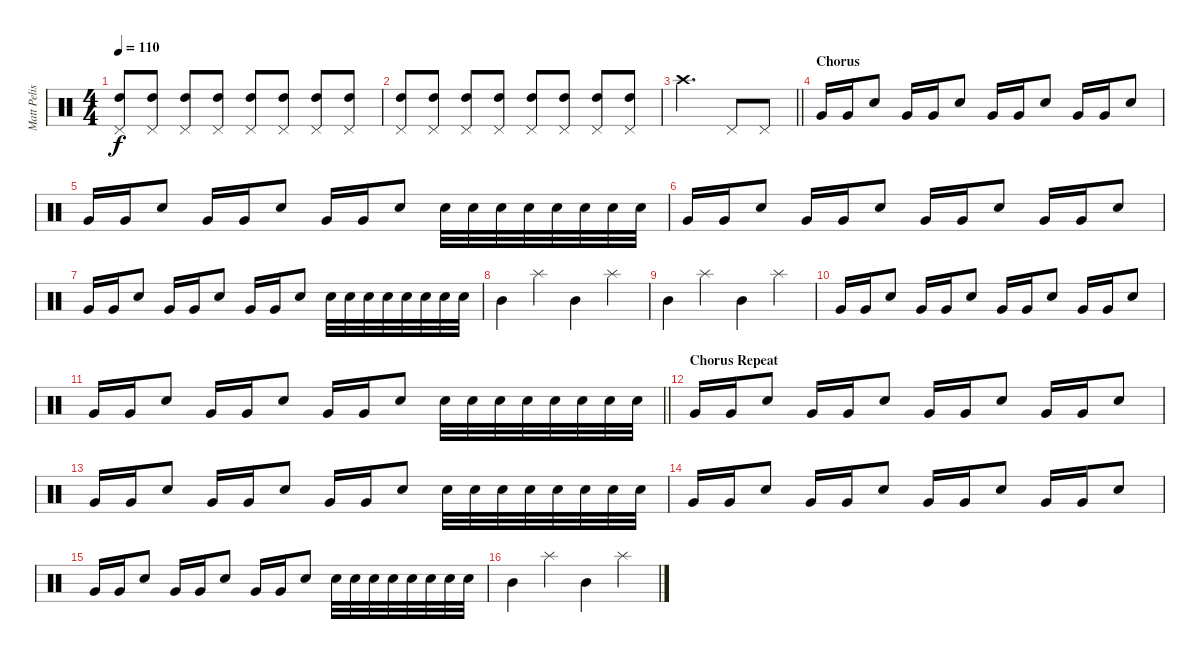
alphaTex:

\track ("Matt Pelissier (Bob Bryar)" "Matt Pelis") {instrument percussion}
\staff {score}
\articulation defaults
\ts (4 4)
\tempo 110
\clef neutral
\ks c
("Pedal Hi-Hat (hit)" "High Tom (hit)").8{dy f} ("Pedal Hi-Hat (hit)" "High Tom (hit)").8 ("Pedal Hi-Hat (hit)" "High Tom (hit)").8 ("Pedal Hi-Hat (hit)" "High Tom (hit)").8 ("Pedal Hi-Hat (hit)" "High Tom (hit)").8 ("Pedal Hi-Hat (hit)" "High Tom (hit)").8 ("Pedal Hi-Hat (hit)" "High Tom (hit)").8 ("Pedal Hi-Hat (hit)" "High Tom (hit)").8 |
("Pedal Hi-Hat (hit)" "High Tom (hit)").8 ("Pedal Hi-Hat (hit)" "High Tom (hit)").8 ("Pedal Hi-Hat (hit)" "High Tom (hit)").8 ("Pedal Hi-Hat (hit)" "High Tom (hit)").8 ("Pedal Hi-Hat (hit)" "High Tom (hit)").8 ("Pedal Hi-Hat (hit)" "High Tom (hit)").8 ("Pedal Hi-Hat (hit)" "High Tom (hit)").8 ("Pedal Hi-Hat (hit)" "High Tom (hit)").8 |
\barLineRight lightlight "Crash high (hit)".2{d} "Pedal Hi-Hat (hit)".8 "Pedal Hi-Hat (hit)".8
|
\section ("" "Chorus")
"Very Low Tom (hit)".16 "Very Low Tom (hit)".16 "Electric Snare (hit)".8 "Very Low Tom (hit)".16 "Very Low Tom (hit)".16 "Electric Snare (hit)".8 "Very Low Tom (hit)".16 "Very Low Tom (hit)".16 "Electric Snare (hit)".8 "Very Low Tom (hit)".16 "Very Low Tom (hit)".16 "Electric Snare (hit)".8 |
"Very Low Tom (hit)".16 "Very Low Tom (hit)".16 "Electric Snare (hit)".8 "Very Low Tom (hit)".16 "Very Low Tom (hit)".16 "Electric Snare (hit)".8 "Very Low Tom (hit)".16 "Very Low Tom (hit)".16 "Electric Snare (hit)".8 "Electric Snare (hit)".32 "Electric Snare (hit)".32 "Electric Snare (hit)".32 "Electric Snare (hit)".32 "Electric Snare (hit)".32 "Electric Snare (hit)".32 "Electric Snare (hit)".32 "Electric Snare (hit)".32 |
"Very Low Tom (hit)".16 "Very Low Tom (hit)".16 "Electric Snare (hit)".8 "Very Low Tom (hit)".16 "Very Low Tom (hit)".16 "Electric Snare (hit)".8 "Very Low Tom (hit)".16 "Very Low Tom (hit)".16 "Electric Snare (hit)".8 "Very Low Tom (hit)".16 "Very Low Tom (hit)".16 "Electric Snare (hit)".8 |
"Very Low Tom (hit)".16 "Very Low Tom (hit)".16 "Electric Snare (hit)".8 "Very Low Tom (hit)".16 "Very Low Tom (hit)".16 "Electric Snare (hit)".8 "Very Low Tom (hit)".16 "Very Low Tom (hit)".16 "Electric Snare (hit)".8 "Electric Snare (hit)".32 "Electric Snare (hit)".32 "Electric Snare (hit)".32 "Electric Snare (hit)".32 "Electric Snare (hit)".32 "Electric Snare (hit)".32 "Electric Snare (hit)".32 "Electric Snare (hit)".32 |
"Mid Tom (hit)".4 "Splash (hit)".4 "Mid Tom (hit)".4 "Splash (hit)".4 |
"Mid Tom (hit)".4 "Splash (hit)".4 "Mid Tom (hit)".4 "Splash (hit)".4 |
"Very Low Tom (hit)".16 "Very Low Tom (hit)".16 "Electric Snare (hit)".8 "Very Low Tom (hit)".16 "Very Low Tom (hit)".16 "Electric Snare (hit)".8 "Very Low Tom (hit)".16 "Very Low Tom (hit)".16 "Electric Snare (hit)".8 "Very Low Tom (hit)".16 "Very Low Tom (hit)".16 "Electric Snare (hit)".8 |
\barLineRight lightlight "Very Low Tom (hit)".16 "Very Low Tom (hit)".16 "Electric Snare (hit)".8 "Very Low Tom (hit)".16 "Very Low Tom (hit)".16 "Electric Snare (hit)".8 "Very Low Tom (hit)".16 "Very Low Tom (hit)".16 "Electric Snare (hit)".8 "Electric Snare (hit)".32 "Electric Snare (hit)".32 "Electric Snare (hit)".32 "Electric Snare (hit)".32 "Electric Snare (hit)".32 "Electric Snare (hit)".32 "Electric Snare (hit)".32 "Electric Snare (hit)".32
|
\section ("" "Chorus Repeat")
"Very Low Tom (hit)".16 "Very Low Tom (hit)".16 "Electric Snare (hit)".8 "Very Low Tom (hit)".16 "Very Low Tom (hit)".16 "Electric Snare (hit)".8 "Very Low Tom (hit)".16 "Very Low Tom (hit)".16 "Electric Snare (hit)".8 "Very Low Tom (hit)".16 "Very Low Tom (hit)".16 "Electric Snare (hit)".8 |
"Very Low Tom (hit)".16 "Very Low Tom (hit)".16 "Electric Snare (hit)".8 "Very Low Tom (hit)".16 "Very Low Tom (hit)".16 "Electric Snare (hit)".8 "Very Low Tom (hit)".16 "Very Low Tom (hit)".16 "Electric Snare (hit)".8 "Electric Snare (hit)".32 "Electric Snare (hit)".32 "Electric Snare (hit)".32 "Electric Snare (hit)".32 "Electric Snare (hit)".32 "Electric Snare (hit)".32 "Electric Snare (hit)".32 "Electric Snare (hit)".32 |
"Very Low Tom (hit)".16 "Very Low Tom (hit)".16 "Electric Snare (hit)".8 "Very Low Tom (hit)".16 "Very Low Tom (hit)".16 "Electric Snare (hit)".8 "Very Low Tom (hit)".16 "Very Low Tom (hit)".16 "Electric Snare (hit)".8 "Very Low Tom (hit)".16 "Very Low Tom (hit)".16 "Electric Snare (hit)".8 |
"Very Low Tom (hit)".16 "Very Low Tom (hit)".16 "Electric Snare (hit)".8 "Very Low Tom (hit)".16 "Very Low Tom (hit)".16 "Electric Snare (hit)".8 "Very Low Tom (hit)".16 "Very Low Tom (hit)".16 "Electric Snare (hit)".8 "Electric Snare (hit)".32 "Electric Snare (hit)".32 "Electric Snare (hit)".32 "Electric Snare (hit)".32 "Electric Snare (hit)".32 "Electric Snare (hit)".32 "Electric Snare (hit)".32 "Electric Snare (hit)".32 |
"Mid Tom (hit)".4 "Splash (hit)".4 "Mid Tom (hit)".4 "Splash (hit)".4
